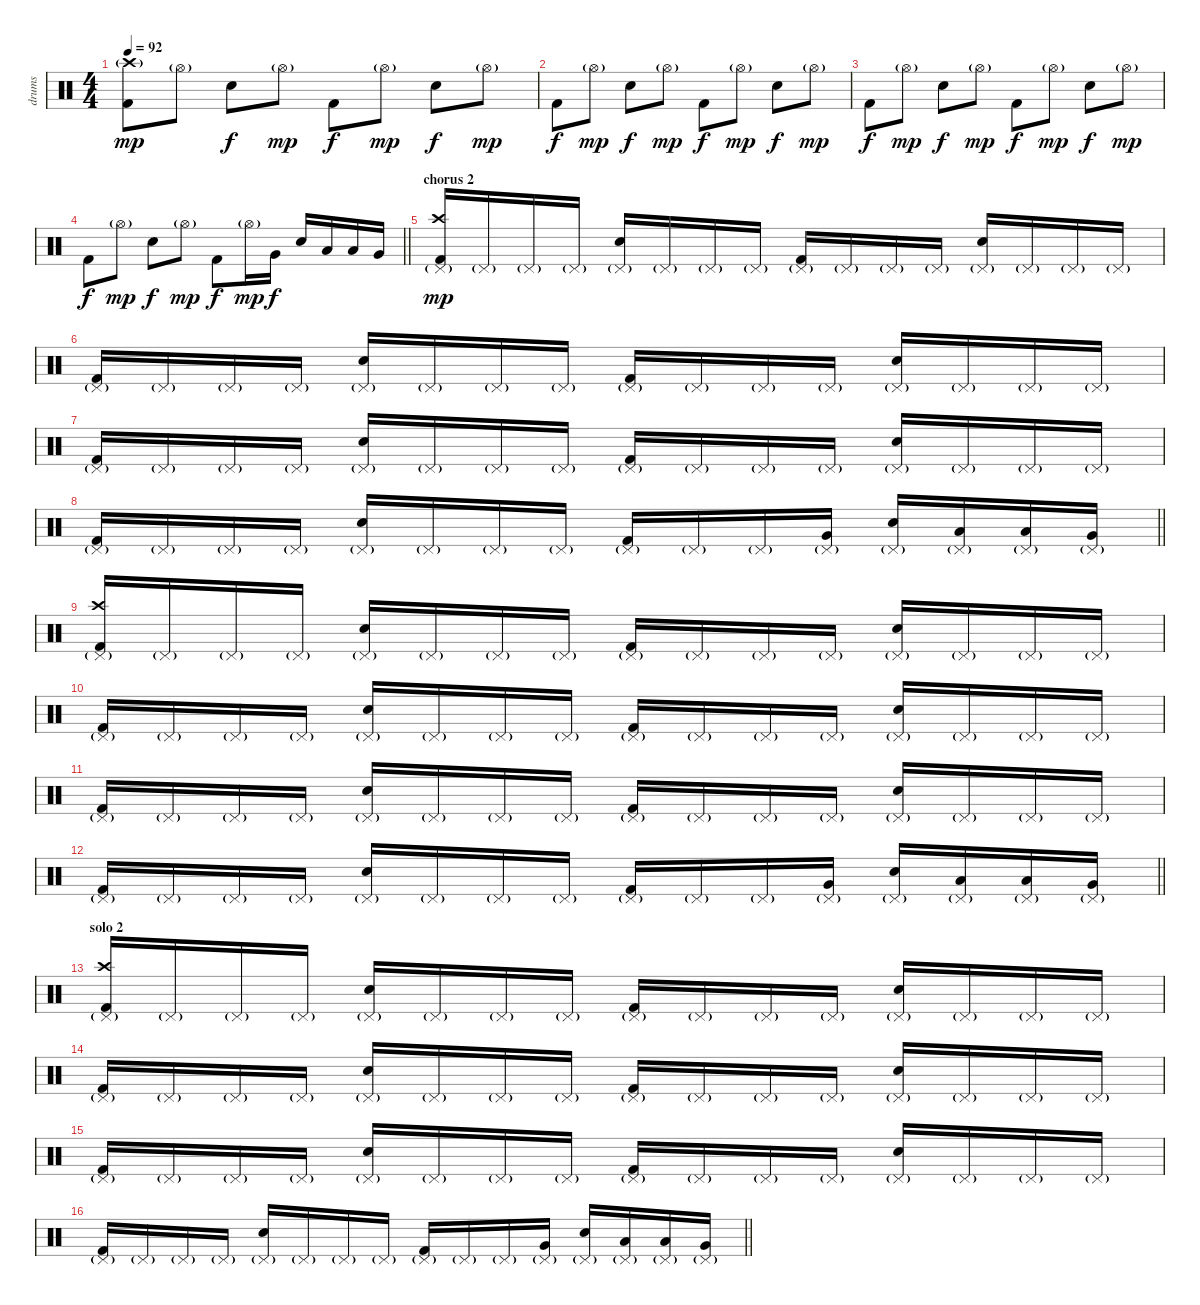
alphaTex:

\track ("drums" "drums") {instrument percussion}
\staff {score}
\articulation defaults
\ts (4 4)
\tempo 92
\clef neutral
\ks c
("Kick (hit) 2" "Crash high (hit)"{g}).8{dy mp} "Hi-Hat (open)"{g}.8 "Electric Snare (hit)".8{dy f} "Hi-Hat (open)"{g}.8{dy mp} "Kick (hit) 2".8{dy f} "Hi-Hat (open)"{g}.8{dy mp} "Electric Snare (hit)".8{dy f} "Hi-Hat (open)"{g}.8{dy mp} |
"Kick (hit) 2".8{dy f} "Hi-Hat (open)"{g}.8{dy mp} "Electric Snare (hit)".8{dy f} "Hi-Hat (open)"{g}.8{dy mp} "Kick (hit) 2".8{dy f} "Hi-Hat (open)"{g}.8{dy mp} "Electric Snare (hit)".8{dy f} "Hi-Hat (open)"{g}.8{dy mp} |
"Kick (hit) 2".8{dy f} "Hi-Hat (open)"{g}.8{dy mp} "Electric Snare (hit)".8{dy f} "Hi-Hat (open)"{g}.8{dy mp} "Kick (hit) 2".8{dy f} "Hi-Hat (open)"{g}.8{dy mp} "Electric Snare (hit)".8{dy f} "Hi-Hat (open)"{g}.8{dy mp} |
\barLineRight lightlight "Kick (hit) 2".8{dy f} "Hi-Hat (open)"{g}.8{dy mp} "Electric Snare (hit)".8{dy f} "Hi-Hat (open)"{g}.8{dy mp} "Kick (hit) 2".8{dy f} "Hi-Hat (open)"{g}.16{dy mp} "Very Low Tom (hit)".16{dy f} "Electric Snare (hit)".16 "Low Floor Tom (hit)".16 "Low Floor Tom (hit)".16 "Very Low Tom (hit)".16
|
\section ("" "chorus 2")
("Kick (hit) 2" "Pedal Hi-Hat (hit)"{g} "Crash high (hit)").16{dy mp} "Pedal Hi-Hat (hit)"{g}.16 "Pedal Hi-Hat (hit)"{g}.16 "Pedal Hi-Hat (hit)"{g}.16 ("Electric Snare (hit)" "Pedal Hi-Hat (hit)"{g}).16 "Pedal Hi-Hat (hit)"{g}.16 "Pedal Hi-Hat (hit)"{g}.16 "Pedal Hi-Hat (hit)"{g}.16 ("Kick (hit) 2" "Pedal Hi-Hat (hit)"{g}).16 "Pedal Hi-Hat (hit)"{g}.16 "Pedal Hi-Hat (hit)"{g}.16 "Pedal Hi-Hat (hit)"{g}.16 ("Electric Snare (hit)" "Pedal Hi-Hat (hit)"{g}).16 "Pedal Hi-Hat (hit)"{g}.16 "Pedal Hi-Hat (hit)"{g}.16 "Pedal Hi-Hat (hit)"{g}.16 |
("Kick (hit) 2" "Pedal Hi-Hat (hit)"{g}).16 "Pedal Hi-Hat (hit)"{g}.16 "Pedal Hi-Hat (hit)"{g}.16 "Pedal Hi-Hat (hit)"{g}.16 ("Electric Snare (hit)" "Pedal Hi-Hat (hit)"{g}).16 "Pedal Hi-Hat (hit)"{g}.16 "Pedal Hi-Hat (hit)"{g}.16 "Pedal Hi-Hat (hit)"{g}.16 ("Kick (hit) 2" "Pedal Hi-Hat (hit)"{g}).16 "Pedal Hi-Hat (hit)"{g}.16 "Pedal Hi-Hat (hit)"{g}.16 "Pedal Hi-Hat (hit)"{g}.16 ("Electric Snare (hit)" "Pedal Hi-Hat (hit)"{g}).16 "Pedal Hi-Hat (hit)"{g}.16 "Pedal Hi-Hat (hit)"{g}.16 "Pedal Hi-Hat (hit)"{g}.16 |
("Kick (hit) 2" "Pedal Hi-Hat (hit)"{g}).16 "Pedal Hi-Hat (hit)"{g}.16 "Pedal Hi-Hat (hit)"{g}.16 "Pedal Hi-Hat (hit)"{g}.16 ("Electric Snare (hit)" "Pedal Hi-Hat (hit)"{g}).16 "Pedal Hi-Hat (hit)"{g}.16 "Pedal Hi-Hat (hit)"{g}.16 "Pedal Hi-Hat (hit)"{g}.16 ("Kick (hit) 2" "Pedal Hi-Hat (hit)"{g}).16 "Pedal Hi-Hat (hit)"{g}.16 "Pedal Hi-Hat (hit)"{g}.16 "Pedal Hi-Hat (hit)"{g}.16 ("Electric Snare (hit)" "Pedal Hi-Hat (hit)"{g}).16 "Pedal Hi-Hat (hit)"{g}.16 "Pedal Hi-Hat (hit)"{g}.16 "Pedal Hi-Hat (hit)"{g}.16 |
\barLineRight lightlight
("Kick (hit) 2" "Pedal Hi-Hat (hit)"{g}).16 "Pedal Hi-Hat (hit)"{g}.16 "Pedal Hi-Hat (hit)"{g}.16 "Pedal Hi-Hat (hit)"{g}.16 ("Electric Snare (hit)" "Pedal Hi-Hat (hit)"{g}).16 "Pedal Hi-Hat (hit)"{g}.16 "Pedal Hi-Hat (hit)"{g}.16 "Pedal Hi-Hat (hit)"{g}.16 ("Kick (hit) 2" "Pedal Hi-Hat (hit)"{g}).16 "Pedal Hi-Hat (hit)"{g}.16 "Pedal Hi-Hat (hit)"{g}.16 ("Very Low Tom (hit)" "Pedal Hi-Hat (hit)"{g}).16 ("Electric Snare (hit)" "Pedal Hi-Hat (hit)"{g}).16 ("Low Floor Tom (hit)" "Pedal Hi-Hat (hit)"{g}).16 ("Low Floor Tom (hit)" "Pedal Hi-Hat (hit)"{g}).16 ("Very Low Tom (hit)" "Pedal Hi-Hat (hit)"{g}).16 |
("Kick (hit) 2" "Pedal Hi-Hat (hit)"{g} "Crash high (hit)").16 "Pedal Hi-Hat (hit)"{g}.16 "Pedal Hi-Hat (hit)"{g}.16 "Pedal Hi-Hat (hit)"{g}.16 ("Electric Snare (hit)" "Pedal Hi-Hat (hit)"{g}).16 "Pedal Hi-Hat (hit)"{g}.16 "Pedal Hi-Hat (hit)"{g}.16 "Pedal Hi-Hat (hit)"{g}.16 ("Kick (hit) 2" "Pedal Hi-Hat (hit)"{g}).16 "Pedal Hi-Hat (hit)"{g}.16 "Pedal Hi-Hat (hit)"{g}.16 "Pedal Hi-Hat (hit)"{g}.16 ("Electric Snare (hit)" "Pedal Hi-Hat (hit)"{g}).16 "Pedal Hi-Hat (hit)"{g}.16 "Pedal Hi-Hat (hit)"{g}.16 "Pedal Hi-Hat (hit)"{g}.16 |
("Kick (hit) 2" "Pedal Hi-Hat (hit)"{g}).16 "Pedal Hi-Hat (hit)"{g}.16 "Pedal Hi-Hat (hit)"{g}.16 "Pedal Hi-Hat (hit)"{g}.16 ("Electric Snare (hit)" "Pedal Hi-Hat (hit)"{g}).16 "Pedal Hi-Hat (hit)"{g}.16 "Pedal Hi-Hat (hit)"{g}.16 "Pedal Hi-Hat (hit)"{g}.16 ("Kick (hit) 2" "Pedal Hi-Hat (hit)"{g}).16 "Pedal Hi-Hat (hit)"{g}.16 "Pedal Hi-Hat (hit)"{g}.16 "Pedal Hi-Hat (hit)"{g}.16 ("Electric Snare (hit)" "Pedal Hi-Hat (hit)"{g}).16 "Pedal Hi-Hat (hit)"{g}.16 "Pedal Hi-Hat (hit)"{g}.16 "Pedal Hi-Hat (hit)"{g}.16 |
("Kick (hit) 2" "Pedal Hi-Hat (hit)"{g}).16 "Pedal Hi-Hat (hit)"{g}.16 "Pedal Hi-Hat (hit)"{g}.16 "Pedal Hi-Hat (hit)"{g}.16 ("Electric Snare (hit)" "Pedal Hi-Hat (hit)"{g}).16 "Pedal Hi-Hat (hit)"{g}.16 "Pedal Hi-Hat (hit)"{g}.16 "Pedal Hi-Hat (hit)"{g}.16 ("Kick (hit) 2" "Pedal Hi-Hat (hit)"{g}).16 "Pedal Hi-Hat (hit)"{g}.16 "Pedal Hi-Hat (hit)"{g}.16 "Pedal Hi-Hat (hit)"{g}.16 ("Electric Snare (hit)" "Pedal Hi-Hat (hit)"{g}).16 "Pedal Hi-Hat (hit)"{g}.16 "Pedal Hi-Hat (hit)"{g}.16 "Pedal Hi-Hat (hit)"{g}.16 |
\barLineRight lightlight
("Kick (hit) 2" "Pedal Hi-Hat (hit)"{g}).16 "Pedal Hi-Hat (hit)"{g}.16 "Pedal Hi-Hat (hit)"{g}.16 "Pedal Hi-Hat (hit)"{g}.16 ("Electric Snare (hit)" "Pedal Hi-Hat (hit)"{g}).16 "Pedal Hi-Hat (hit)"{g}.16 "Pedal Hi-Hat (hit)"{g}.16 "Pedal Hi-Hat (hit)"{g}.16 ("Kick (hit) 2" "Pedal Hi-Hat (hit)"{g}).16 "Pedal Hi-Hat (hit)"{g}.16 "Pedal Hi-Hat (hit)"{g}.16 ("Very Low Tom (hit)" "Pedal Hi-Hat (hit)"{g}).16 ("Electric Snare (hit)" "Pedal Hi-Hat (hit)"{g}).16 ("Low Floor Tom (hit)" "Pedal Hi-Hat (hit)"{g}).16 ("Low Floor Tom (hit)" "Pedal Hi-Hat (hit)"{g}).16 ("Very Low Tom (hit)" "Pedal Hi-Hat (hit)"{g}).16 |
\section ("" "solo 2")
("Kick (hit) 2" "Pedal Hi-Hat (hit)"{g} "Crash high (hit)").16 "Pedal Hi-Hat (hit)"{g}.16 "Pedal Hi-Hat (hit)"{g}.16 "Pedal Hi-Hat (hit)"{g}.16 ("Electric Snare (hit)" "Pedal Hi-Hat (hit)"{g}).16 "Pedal Hi-Hat (hit)"{g}.16 "Pedal Hi-Hat (hit)"{g}.16 "Pedal Hi-Hat (hit)"{g}.16 ("Kick (hit) 2" "Pedal Hi-Hat (hit)"{g}).16 "Pedal Hi-Hat (hit)"{g}.16 "Pedal Hi-Hat (hit)"{g}.16 "Pedal Hi-Hat (hit)"{g}.16 ("Electric Snare (hit)" "Pedal Hi-Hat (hit)"{g}).16 "Pedal Hi-Hat (hit)"{g}.16 "Pedal Hi-Hat (hit)"{g}.16 "Pedal Hi-Hat (hit)"{g}.16 |
("Kick (hit) 2" "Pedal Hi-Hat (hit)"{g}).16 "Pedal Hi-Hat (hit)"{g}.16 "Pedal Hi-Hat (hit)"{g}.16 "Pedal Hi-Hat (hit)"{g}.16 ("Electric Snare (hit)" "Pedal Hi-Hat (hit)"{g}).16 "Pedal Hi-Hat (hit)"{g}.16 "Pedal Hi-Hat (hit)"{g}.16 "Pedal Hi-Hat (hit)"{g}.16 ("Kick (hit) 2" "Pedal Hi-Hat (hit)"{g}).16 "Pedal Hi-Hat (hit)"{g}.16 "Pedal Hi-Hat (hit)"{g}.16 "Pedal Hi-Hat (hit)"{g}.16 ("Electric Snare (hit)" "Pedal Hi-Hat (hit)"{g}).16 "Pedal Hi-Hat (hit)"{g}.16 "Pedal Hi-Hat (hit)"{g}.16 "Pedal Hi-Hat (hit)"{g}.16 |
("Kick (hit) 2" "Pedal Hi-Hat (hit)"{g}).16 "Pedal Hi-Hat (hit)"{g}.16 "Pedal Hi-Hat (hit)"{g}.16 "Pedal Hi-Hat (hit)"{g}.16 ("Electric Snare (hit)" "Pedal Hi-Hat (hit)"{g}).16 "Pedal Hi-Hat (hit)"{g}.16 "Pedal Hi-Hat (hit)"{g}.16 "Pedal Hi-Hat (hit)"{g}.16 ("Kick (hit) 2" "Pedal Hi-Hat (hit)"{g}).16 "Pedal Hi-Hat (hit)"{g}.16 "Pedal Hi-Hat (hit)"{g}.16 "Pedal Hi-Hat (hit)"{g}.16 ("Electric Snare (hit)" "Pedal Hi-Hat (hit)"{g}).16 "Pedal Hi-Hat (hit)"{g}.16 "Pedal Hi-Hat (hit)"{g}.16 "Pedal Hi-Hat (hit)"{g}.16 |
\barLineRight lightlight
("Kick (hit) 2" "Pedal Hi-Hat (hit)"{g}).16 "Pedal Hi-Hat (hit)"{g}.16 "Pedal Hi-Hat (hit)"{g}.16 "Pedal Hi-Hat (hit)"{g}.16 ("Electric Snare (hit)" "Pedal Hi-Hat (hit)"{g}).16 "Pedal Hi-Hat (hit)"{g}.16 "Pedal Hi-Hat (hit)"{g}.16 "Pedal Hi-Hat (hit)"{g}.16 ("Kick (hit) 2" "Pedal Hi-Hat (hit)"{g}).16 "Pedal Hi-Hat (hit)"{g}.16 "Pedal Hi-Hat (hit)"{g}.16 ("Very Low Tom (hit)" "Pedal Hi-Hat (hit)"{g}).16 ("Electric Snare (hit)" "Pedal Hi-Hat (hit)"{g}).16 ("Low Floor Tom (hit)" "Pedal Hi-Hat (hit)"{g}).16 ("Low Floor Tom (hit)" "Pedal Hi-Hat (hit)"{g}).16 ("Very Low Tom (hit)" "Pedal Hi-Hat (hit)"{g}).16
